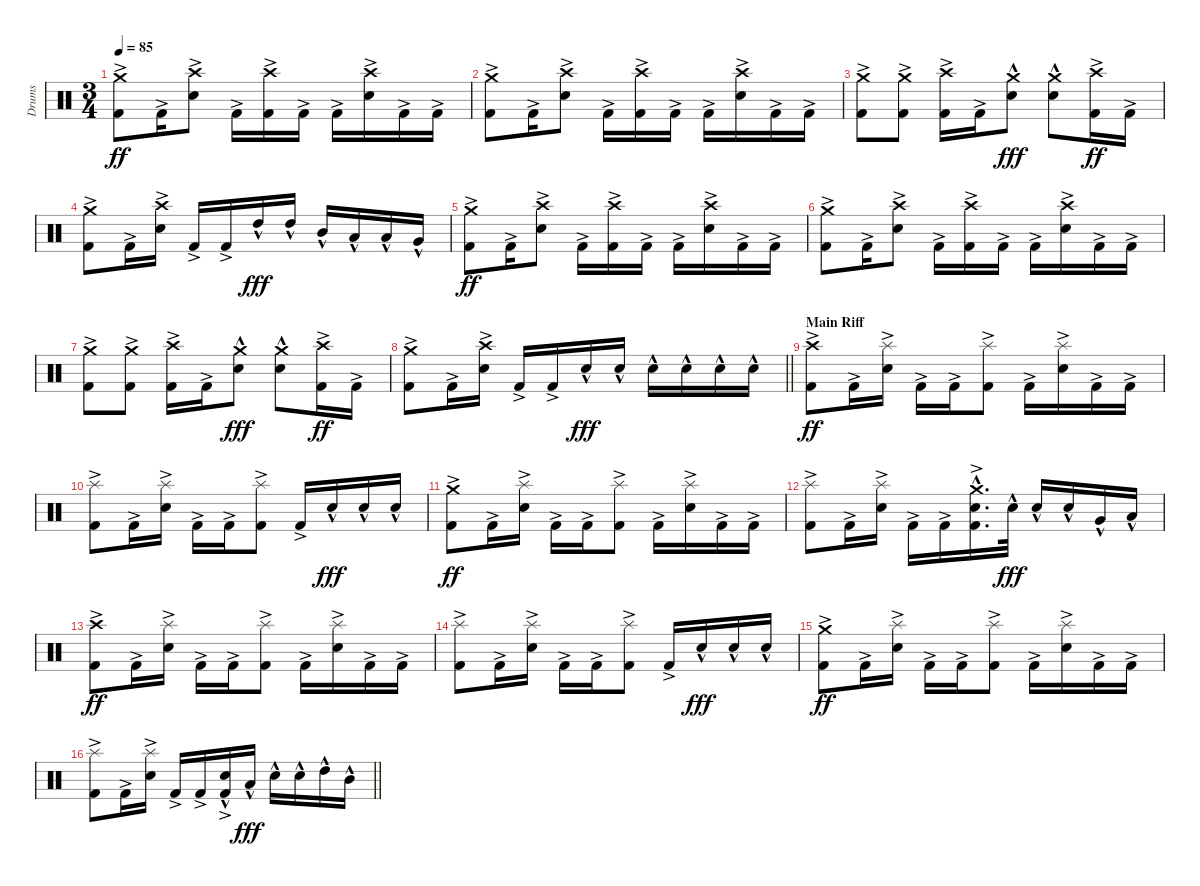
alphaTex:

\track ("Drums" "Drums") {instrument percussion}
\staff {score}
\articulation defaults
\ts (3 4)
\tempo 85
\clef neutral
\ks c
("Crash medium (hit)" "Kick (hit) 2"{ac}).8{dy ff} "Kick (hit) 2"{ac}.16 ("Crash high (hit)" "Electric Snare (hit)"{ac}).8 "Kick (hit) 2"{ac}.16 ("Crash high (hit)" "Kick (hit) 2"{ac}).16 "Kick (hit) 2"{ac}.16 "Kick (hit) 2"{ac}.16 ("Crash high (hit)" "Electric Snare (hit)"{ac}).16 "Kick (hit) 2"{ac}.16 "Kick (hit) 2"{ac}.16 |
("Crash medium (hit)" "Kick (hit) 2"{ac}).8 "Kick (hit) 2"{ac}.16 ("Crash high (hit)" "Electric Snare (hit)"{ac}).8 "Kick (hit) 2"{ac}.16 ("Crash high (hit)" "Kick (hit) 2"{ac}).16 "Kick (hit) 2"{ac}.16 "Kick (hit) 2"{ac}.16 ("Crash high (hit)" "Electric Snare (hit)"{ac}).16 "Kick (hit) 2"{ac}.16 "Kick (hit) 2"{ac}.16 |
("Crash medium (hit)" "Kick (hit) 2"{ac}).8 ("Crash medium (hit)" "Kick (hit) 2"{ac}).8 ("Crash high (hit)" "Kick (hit) 2"{ac}).16 "Kick (hit) 2"{ac}.16 ("Crash medium (hit)" "Electric Snare (hit)"{hac}).8{dy fff} ("Crash medium (hit)" "Electric Snare (hit)"{hac}).8 ("Crash high (hit)" "Kick (hit) 2"{ac}).16{dy ff} "Kick (hit) 2"{ac}.16 |
("Crash medium (hit)" "Kick (hit) 2"{ac}).8 "Kick (hit) 2"{ac}.16 ("Crash high (hit)" "Electric Snare (hit)"{ac}).16 "Kick (hit) 2"{ac}.16 "Kick (hit) 2"{ac}.16 "High Tom (hit)"{hac}.16{dy fff} "High Tom (hit)"{hac}.16 "Mid Tom (hit)"{hac}.16 "Low Tom (hit)"{hac}.16 "Low Tom (hit)"{hac}.16 "Very Low Tom (hit)"{hac}.16 |
("Crash medium (hit)" "Kick (hit) 2"{ac}).8{dy ff} "Kick (hit) 2"{ac}.16 ("Crash high (hit)" "Electric Snare (hit)"{ac}).8 "Kick (hit) 2"{ac}.16 ("Crash high (hit)" "Kick (hit) 2"{ac}).16 "Kick (hit) 2"{ac}.16 "Kick (hit) 2"{ac}.16 ("Crash high (hit)" "Electric Snare (hit)"{ac}).16 "Kick (hit) 2"{ac}.16 "Kick (hit) 2"{ac}.16 |
("Crash medium (hit)" "Kick (hit) 2"{ac}).8 "Kick (hit) 2"{ac}.16 ("Crash high (hit)" "Electric Snare (hit)"{ac}).8 "Kick (hit) 2"{ac}.16 ("Crash high (hit)" "Kick (hit) 2"{ac}).16 "Kick (hit) 2"{ac}.16 "Kick (hit) 2"{ac}.16 ("Crash high (hit)" "Electric Snare (hit)"{ac}).16 "Kick (hit) 2"{ac}.16 "Kick (hit) 2"{ac}.16 |
("Crash medium (hit)" "Kick (hit) 2"{ac}).8 ("Crash medium (hit)" "Kick (hit) 2"{ac}).8 ("Crash high (hit)" "Kick (hit) 2"{ac}).16 "Kick (hit) 2"{ac}.16 ("Crash medium (hit)" "Electric Snare (hit)"{hac}).8{dy fff} ("Crash medium (hit)" "Electric Snare (hit)"{hac}).8 ("Crash high (hit)" "Kick (hit) 2"{ac}).16{dy ff} "Kick (hit) 2"{ac}.16 |
\barLineRight lightlight
("Crash medium (hit)" "Kick (hit) 2"{ac}).8 "Kick (hit) 2"{ac}.16 ("Crash high (hit)" "Electric Snare (hit)"{ac}).16 "Kick (hit) 2"{ac}.16 "Kick (hit) 2"{ac}.16 "Snare (hit) 2"{hac}.16{dy fff} "Snare (hit) 2"{hac}.16 "Snare (hit) 2"{hac}.16 "Electric Snare (hit)"{hac}.16 "Electric Snare (hit)"{hac}.16 "Electric Snare (hit)"{hac}.16 |
\section ("" "Main Riff")
("Crash high (hit)" "Kick (hit) 2"{ac}).8{dy ff} "Kick (hit) 2"{ac}.16 ("Splash (hit)" "Electric Snare (hit)"{ac}).16 "Kick (hit) 2"{ac}.16 "Kick (hit) 2"{ac}.16 ("Splash (hit)" "Kick (hit) 2"{ac}).8 "Kick (hit) 2"{ac}.16 ("Splash (hit)" "Electric Snare (hit)"{ac}).16 "Kick (hit) 2"{ac}.16 "Kick (hit) 2"{ac}.16 |
("Splash (hit)" "Kick (hit) 2"{ac}).8 "Kick (hit) 2"{ac}.16 ("Splash (hit)" "Electric Snare (hit)"{ac}).16 "Kick (hit) 2"{ac}.16 "Kick (hit) 2"{ac}.16 ("Splash (hit)" "Kick (hit) 2"{ac}).8 "Kick (hit) 2"{ac}.16 "Electric Snare (hit)"{hac}.16{dy fff} "Electric Snare (hit)"{hac}.16 "Electric Snare (hit)"{hac}.16 |
("Crash medium (hit)" "Kick (hit) 2"{ac}).8{dy ff} "Kick (hit) 2"{ac}.16 ("Splash (hit)" "Electric Snare (hit)"{ac}).16 "Kick (hit) 2"{ac}.16 "Kick (hit) 2"{ac}.16 ("Splash (hit)" "Kick (hit) 2"{ac}).8 "Kick (hit) 2"{ac}.16 ("Splash (hit)" "Electric Snare (hit)"{ac}).16 "Kick (hit) 2"{ac}.16 "Kick (hit) 2"{ac}.16 |
("Splash (hit)" "Kick (hit) 2"{ac}).8 "Kick (hit) 2"{ac}.16 ("Splash (hit)" "Electric Snare (hit)"{ac}).16 "Kick (hit) 2"{ac}.16 "Kick (hit) 2"{ac}.16 ("Crash medium (hit)" "Electric Snare (hit)"{hac} "Kick (hit) 2"{ac}).16{d} "Electric Snare (hit)"{hac}.32{dy fff} "Electric Snare (hit)"{hac}.16 "Electric Snare (hit)"{hac}.16 "Very Low Tom (hit)"{hac}.16 "Low Tom (hit)"{hac}.16 |
("Crash high (hit)" "Kick (hit) 2"{ac}).8{dy ff} "Kick (hit) 2"{ac}.16 ("Splash (hit)" "Electric Snare (hit)"{ac}).16 "Kick (hit) 2"{ac}.16 "Kick (hit) 2"{ac}.16 ("Splash (hit)" "Kick (hit) 2"{ac}).8 "Kick (hit) 2"{ac}.16 ("Splash (hit)" "Electric Snare (hit)"{ac}).16 "Kick (hit) 2"{ac}.16 "Kick (hit) 2"{ac}.16 |
("Splash (hit)" "Kick (hit) 2"{ac}).8 "Kick (hit) 2"{ac}.16 ("Splash (hit)" "Electric Snare (hit)"{ac}).16 "Kick (hit) 2"{ac}.16 "Kick (hit) 2"{ac}.16 ("Splash (hit)" "Kick (hit) 2"{ac}).8 "Kick (hit) 2"{ac}.16 "Electric Snare (hit)"{hac}.16{dy fff} "Electric Snare (hit)"{hac}.16 "Electric Snare (hit)"{hac}.16 |
("Crash medium (hit)" "Kick (hit) 2"{ac}).8{dy ff} "Kick (hit) 2"{ac}.16 ("Splash (hit)" "Electric Snare (hit)"{ac}).16 "Kick (hit) 2"{ac}.16 "Kick (hit) 2"{ac}.16 ("Splash (hit)" "Kick (hit) 2"{ac}).8 "Kick (hit) 2"{ac}.16 ("Splash (hit)" "Electric Snare (hit)"{ac}).16 "Kick (hit) 2"{ac}.16 "Kick (hit) 2"{ac}.16 |
\barLineRight lightlight
("Splash (hit)" "Kick (hit) 2"{ac}).8 "Kick (hit) 2"{ac}.16 ("Splash (hit)" "Electric Snare (hit)"{ac}).16 "Kick (hit) 2"{ac}.16 "Kick (hit) 2"{ac}.16 ("Electric Snare (hit)"{hac} "Kick (hit) 2"{ac}).16 "Low Tom (hit)"{hac}.16{dy fff} "Electric Snare (hit)"{hac}.16 "Electric Snare (hit)"{hac}.16 "High Tom (hit)"{hac}.16 "Mid Tom (hit)"{hac}.16
